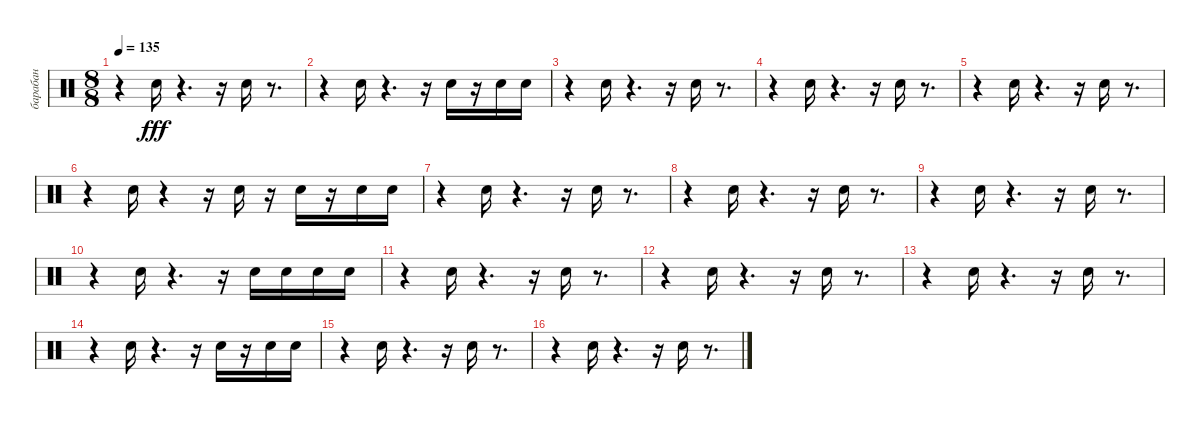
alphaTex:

\track ("барабан" "барабан") {instrument percussion}
\staff {score}
\articulation defaults
\ts (8 8)
\tempo 135
\clef neutral
\ks c
r.4{dy fff} "Snare (hit) 2".16 r.4{d} r.16 "Snare (hit) 2".16 r.8{d} |
r.4 "Snare (hit) 2".16 r.4{d} r.16 "Snare (hit) 2".16 r.16 "Snare (hit) 2".16 "Snare (hit) 2".16 |
r.4 "Snare (hit) 2".16 r.4{d} r.16 "Snare (hit) 2".16 r.8{d} |
r.4 "Snare (hit) 2".16 r.4{d} r.16 "Snare (hit) 2".16 r.8{d} |
r.4 "Snare (hit) 2".16 r.4{d} r.16 "Snare (hit) 2".16 r.8{d} |
r.4 "Snare (hit) 2".16 r.4 r.16 "Snare (hit) 2".16 r.16 "Snare (hit) 2".16 r.16 "Snare (hit) 2".16 "Snare (hit) 2".16 |
r.4 "Snare (hit) 2".16 r.4{d} r.16 "Snare (hit) 2".16 r.8{d} |
r.4 "Snare (hit) 2".16 r.4{d} r.16 "Snare (hit) 2".16 r.8{d} |
r.4 "Snare (hit) 2".16 r.4{d} r.16 "Snare (hit) 2".16 r.8{d} |
r.4 "Snare (hit) 2".16 r.4{d} r.16 "Snare (hit) 2".16 "Snare (hit) 2".16 "Snare (hit) 2".16 "Snare (hit) 2".16 |
r.4 "Snare (hit) 2".16 r.4{d} r.16 "Snare (hit) 2".16 r.8{d} |
r.4 "Snare (hit) 2".16 r.4{d} r.16 "Snare (hit) 2".16 r.8{d} |
r.4 "Snare (hit) 2".16 r.4{d} r.16 "Snare (hit) 2".16 r.8{d} |
r.4 "Snare (hit) 2".16 r.4{d} r.16 "Snare (hit) 2".16 r.16 "Snare (hit) 2".16 "Snare (hit) 2".16 |
r.4 "Snare (hit) 2".16 r.4{d} r.16 "Snare (hit) 2".16 r.8{d} |
r.4 "Snare (hit) 2".16 r.4{d} r.16 "Snare (hit) 2".16 r.8{d}
